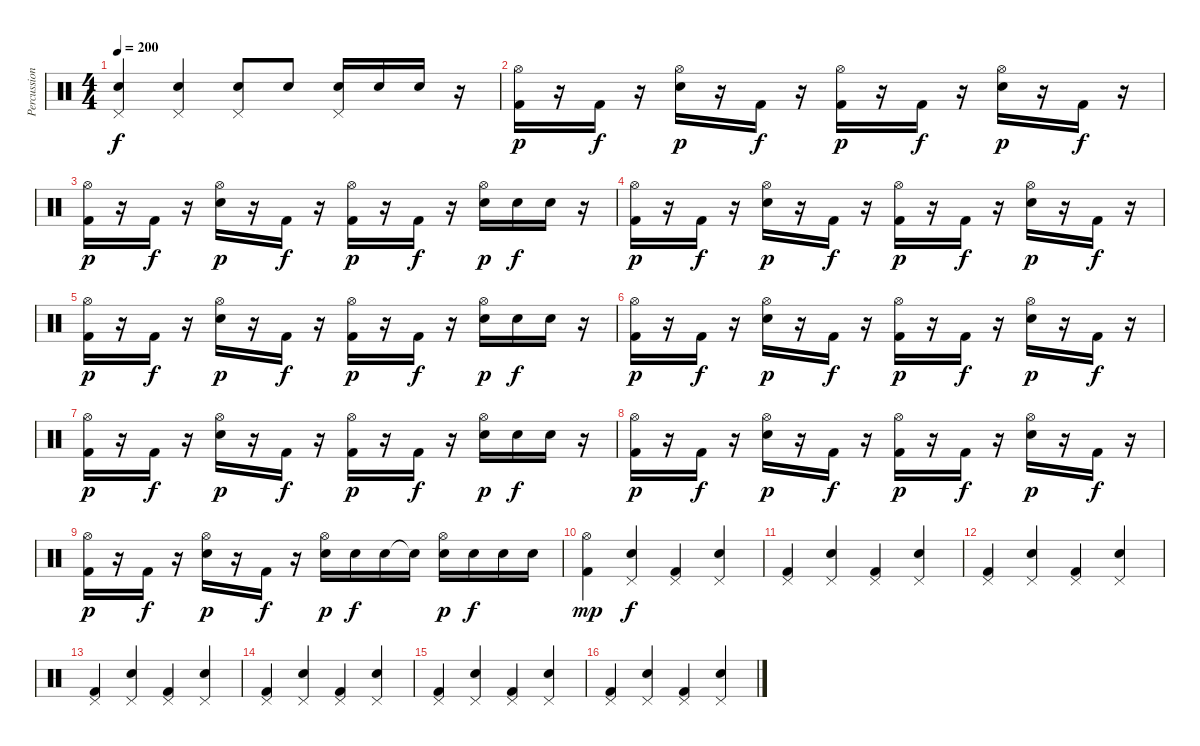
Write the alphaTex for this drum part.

\track ("Percussion" "Percussion") {instrument percussion}
\staff {score}
\articulation defaults
\ts (4 4)
\tempo 200
\clef neutral
\ks c
("Electric Snare (hit)" "Pedal Hi-Hat (hit)").4{dy f} ("Electric Snare (hit)" "Pedal Hi-Hat (hit)").4 ("Electric Snare (hit)" "Pedal Hi-Hat (hit)").8 "Electric Snare (hit)".8 ("Electric Snare (hit)" "Pedal Hi-Hat (hit)").16 "Electric Snare (hit)".16 "Electric Snare (hit)".16 r.16 |
("Kick (hit) 2" "Hi-Hat (open)").16{dy p} r.16 "Kick (hit) 2".16{dy f} r.16 ("Electric Snare (hit)" "Hi-Hat (open)").16{dy p} r.16 "Kick (hit) 2".16{dy f} r.16 ("Kick (hit) 2" "Hi-Hat (open)").16{dy p} r.16 "Kick (hit) 2".16{dy f} r.16 ("Electric Snare (hit)" "Hi-Hat (open)").16{dy p} r.16 "Kick (hit) 2".16{dy f} r.16 |
("Kick (hit) 2" "Hi-Hat (open)").16{dy p} r.16 "Kick (hit) 2".16{dy f} r.16 ("Electric Snare (hit)" "Hi-Hat (open)").16{dy p} r.16 "Kick (hit) 2".16{dy f} r.16 ("Kick (hit) 2" "Hi-Hat (open)").16{dy p} r.16 "Kick (hit) 2".16{dy f} r.16 ("Electric Snare (hit)" "Hi-Hat (open)").16{dy p} "Electric Snare (hit)".16{dy f} "Electric Snare (hit)".16 r.16 |
("Kick (hit) 2" "Hi-Hat (open)").16{dy p} r.16 "Kick (hit) 2".16{dy f} r.16 ("Electric Snare (hit)" "Hi-Hat (open)").16{dy p} r.16 "Kick (hit) 2".16{dy f} r.16 ("Kick (hit) 2" "Hi-Hat (open)").16{dy p} r.16 "Kick (hit) 2".16{dy f} r.16 ("Electric Snare (hit)" "Hi-Hat (open)").16{dy p} r.16 "Kick (hit) 2".16{dy f} r.16 |
("Kick (hit) 2" "Hi-Hat (open)").16{dy p} r.16 "Kick (hit) 2".16{dy f} r.16 ("Electric Snare (hit)" "Hi-Hat (open)").16{dy p} r.16 "Kick (hit) 2".16{dy f} r.16 ("Kick (hit) 2" "Hi-Hat (open)").16{dy p} r.16 "Kick (hit) 2".16{dy f} r.16 ("Electric Snare (hit)" "Hi-Hat (open)").16{dy p} "Electric Snare (hit)".16{dy f} "Electric Snare (hit)".16 r.16 |
("Kick (hit) 2" "Hi-Hat (open)").16{dy p} r.16 "Kick (hit) 2".16{dy f} r.16 ("Electric Snare (hit)" "Hi-Hat (open)").16{dy p} r.16 "Kick (hit) 2".16{dy f} r.16 ("Kick (hit) 2" "Hi-Hat (open)").16{dy p} r.16 "Kick (hit) 2".16{dy f} r.16 ("Electric Snare (hit)" "Hi-Hat (open)").16{dy p} r.16 "Kick (hit) 2".16{dy f} r.16 |
("Kick (hit) 2" "Hi-Hat (open)").16{dy p} r.16 "Kick (hit) 2".16{dy f} r.16 ("Electric Snare (hit)" "Hi-Hat (open)").16{dy p} r.16 "Kick (hit) 2".16{dy f} r.16 ("Kick (hit) 2" "Hi-Hat (open)").16{dy p} r.16 "Kick (hit) 2".16{dy f} r.16 ("Electric Snare (hit)" "Hi-Hat (open)").16{dy p} "Electric Snare (hit)".16{dy f} "Electric Snare (hit)".16 r.16 |
("Kick (hit) 2" "Hi-Hat (open)").16{dy p} r.16 "Kick (hit) 2".16{dy f} r.16 ("Electric Snare (hit)" "Hi-Hat (open)").16{dy p} r.16 "Kick (hit) 2".16{dy f} r.16 ("Kick (hit) 2" "Hi-Hat (open)").16{dy p} r.16 "Kick (hit) 2".16{dy f} r.16 ("Electric Snare (hit)" "Hi-Hat (open)").16{dy p} r.16 "Kick (hit) 2".16{dy f} r.16 |
("Kick (hit) 2" "Hi-Hat (open)").16{dy p} r.16 "Kick (hit) 2".16{dy f} r.16 ("Electric Snare (hit)" "Hi-Hat (open)").16{dy p} r.16 "Kick (hit) 2".16{dy f} r.16 ("Electric Snare (hit)" "Hi-Hat (open)").16{dy p} "Electric Snare (hit)".16{dy f} "Electric Snare (hit)".16 "Electric Snare (hit)"{t}.16 ("Electric Snare (hit)" "Hi-Hat (open)").16{dy p} "Electric Snare (hit)".16{dy f} "Electric Snare (hit)".16 "Electric Snare (hit)".16 |
("Kick (hit) 2" "Hi-Hat (open)").4{dy mp} ("Electric Snare (hit)" "Pedal Hi-Hat (hit)").4{dy f} ("Kick (hit) 2" "Pedal Hi-Hat (hit)").4 ("Electric Snare (hit)" "Pedal Hi-Hat (hit)").4 |
("Kick (hit) 2" "Pedal Hi-Hat (hit)").4 ("Electric Snare (hit)" "Pedal Hi-Hat (hit)").4 ("Kick (hit) 2" "Pedal Hi-Hat (hit)").4 ("Electric Snare (hit)" "Pedal Hi-Hat (hit)").4 |
("Kick (hit) 2" "Pedal Hi-Hat (hit)").4 ("Electric Snare (hit)" "Pedal Hi-Hat (hit)").4 ("Kick (hit) 2" "Pedal Hi-Hat (hit)").4 ("Electric Snare (hit)" "Pedal Hi-Hat (hit)").4 |
("Kick (hit) 2" "Pedal Hi-Hat (hit)").4 ("Electric Snare (hit)" "Pedal Hi-Hat (hit)").4 ("Kick (hit) 2" "Pedal Hi-Hat (hit)").4 ("Electric Snare (hit)" "Pedal Hi-Hat (hit)").4 |
("Kick (hit) 2" "Pedal Hi-Hat (hit)").4 ("Electric Snare (hit)" "Pedal Hi-Hat (hit)").4 ("Kick (hit) 2" "Pedal Hi-Hat (hit)").4 ("Electric Snare (hit)" "Pedal Hi-Hat (hit)").4 |
("Kick (hit) 2" "Pedal Hi-Hat (hit)").4 ("Electric Snare (hit)" "Pedal Hi-Hat (hit)").4 ("Kick (hit) 2" "Pedal Hi-Hat (hit)").4 ("Electric Snare (hit)" "Pedal Hi-Hat (hit)").4 |
("Kick (hit) 2" "Pedal Hi-Hat (hit)").4 ("Electric Snare (hit)" "Pedal Hi-Hat (hit)").4 ("Kick (hit) 2" "Pedal Hi-Hat (hit)").4 ("Electric Snare (hit)" "Pedal Hi-Hat (hit)").4
